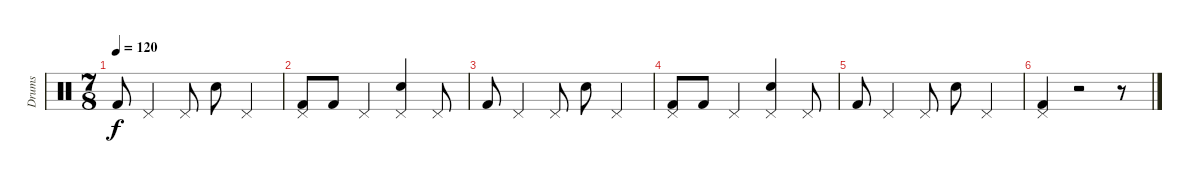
\track ("Drums" "Drums") {instrument percussion}
\staff {score}
\articulation defaults
\ts (7 8)
\tempo 120
\clef neutral
\ks c "Kick (hit) 2".8{dy f} "Pedal Hi-Hat (hit)".4 "Pedal Hi-Hat (hit)".8 "Electric Snare (hit)".8 "Pedal Hi-Hat (hit)".4
|
("Pedal Hi-Hat (hit)" "Kick (hit) 2").8 "Kick (hit) 2".8 "Pedal Hi-Hat (hit)".4 ("Pedal Hi-Hat (hit)" "Electric Snare (hit)").4 "Pedal Hi-Hat (hit)".8 |
"Kick (hit) 2".8 "Pedal Hi-Hat (hit)".4 "Pedal Hi-Hat (hit)".8 "Electric Snare (hit)".8 "Pedal Hi-Hat (hit)".4 |
("Pedal Hi-Hat (hit)" "Kick (hit) 2").8 "Kick (hit) 2".8 "Pedal Hi-Hat (hit)".4 ("Pedal Hi-Hat (hit)" "Electric Snare (hit)").4 "Pedal Hi-Hat (hit)".8 |
"Kick (hit) 2".8 "Pedal Hi-Hat (hit)".4 "Pedal Hi-Hat (hit)".8 "Electric Snare (hit)".8 "Pedal Hi-Hat (hit)".4 |
("Pedal Hi-Hat (hit)" "Kick (hit) 2").4 r.2 r.8
